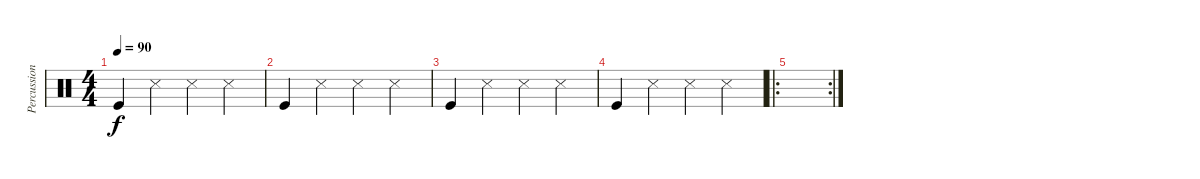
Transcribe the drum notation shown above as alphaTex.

\track ("Percussions" "Percussion") {instrument percussion}
\staff {score}
\articulation defaults
\ts (4 4)
\tempo 90
\clef neutral
\ks c "Kick (hit)".4{dy f} "Snare (side stick) 3".4 "Snare (side stick) 3".4 "Metronome (hit)".4
|
"Kick (hit)".4 "Snare (side stick) 3".4 "Snare (side stick) 3".4 "Metronome (hit)".4 |
"Kick (hit)".4 "Snare (side stick) 3".4 "Snare (side stick) 3".4 "Metronome (hit)".4 |
"Kick (hit)".4 "Snare (side stick) 3".4 "Snare (side stick) 3".4 "Metronome (hit)".4 |
\ro
\rc 2
